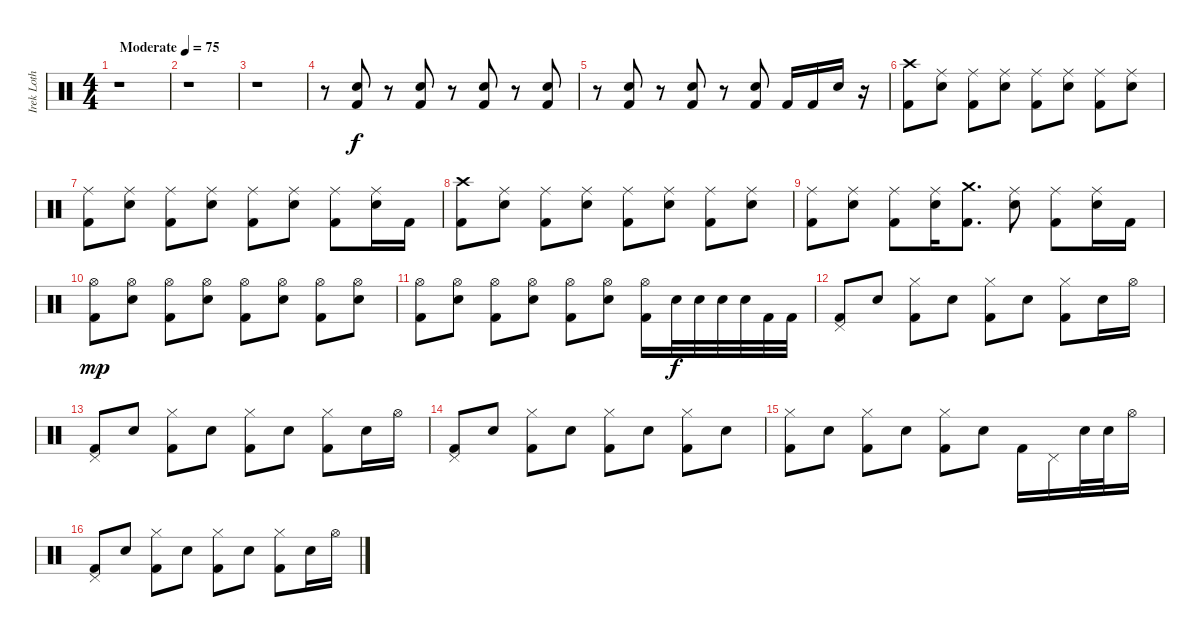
\track ("Irek Loth" "Irek Loth") {instrument percussion}
\staff {score}
\articulation defaults
\ts (4 4)
\tempo (75 "Moderate")
\clef neutral
\ks c
r.1{dy f} |
r.1 |
r.1 |
r.8 ("Snare (hit) 2" "Kick (hit) 2").8 r.8 ("Snare (hit) 2" "Kick (hit) 2").8 r.8 ("Snare (hit) 2" "Kick (hit) 2").8 r.8 ("Snare (hit) 2" "Kick (hit) 2").8 |
r.8 ("Snare (hit) 2" "Kick (hit) 2").8 r.8 ("Snare (hit) 2" "Kick (hit) 2").8 r.8 ("Snare (hit) 2" "Kick (hit) 2").8 "Kick (hit) 2".16 "Kick (hit) 2".16 "Snare (hit) 2".16 r.16 |
("Crash high (hit)" "Kick (hit) 2").8 ("Snare (hit) 2" "Ride (middle)").8 ("Ride (middle)" "Kick (hit) 2").8 ("Snare (hit) 2" "Ride (middle)").8 ("Ride (middle)" "Kick (hit) 2").8 ("Snare (hit) 2" "Ride (middle)").8 ("Ride (middle)" "Kick (hit) 2").8 ("Snare (hit) 2" "Ride (middle)").8 |
("Ride (middle)" "Kick (hit) 2").8 ("Snare (hit) 2" "Ride (middle)").8 ("Ride (middle)" "Kick (hit) 2").8 ("Snare (hit) 2" "Ride (middle)").8 ("Ride (middle)" "Kick (hit) 2").8 ("Snare (hit) 2" "Ride (middle)").8 ("Ride (middle)" "Kick (hit) 2").8 ("Snare (hit) 2" "Ride (middle)").16 "Kick (hit) 2".16 |
("Crash high (hit)" "Kick (hit) 2").8 ("Snare (hit) 2" "Ride (middle)").8 ("Ride (middle)" "Kick (hit) 2").8 ("Snare (hit) 2" "Ride (middle)").8 ("Ride (middle)" "Kick (hit) 2").8 ("Snare (hit) 2" "Ride (middle)").8 ("Ride (middle)" "Kick (hit) 2").8 ("Snare (hit) 2" "Ride (middle)").8 |
("Ride (middle)" "Kick (hit) 2").8 ("Snare (hit) 2" "Ride (middle)").8 ("Ride (middle)" "Kick (hit) 2").8 ("Snare (hit) 2" "Ride (middle)").16 ("Crash medium (hit)" "Kick (hit) 2").8{d} ("Snare (hit) 2" "Ride (middle)").8 ("Ride (middle)" "Kick (hit) 2").8 ("Snare (hit) 2" "Ride (middle)").16 "Kick (hit) 2".16 |
("Hi-Hat (open)" "Kick (hit) 2").8{dy mp} ("Snare (hit) 2" "Hi-Hat (open)").8 ("Hi-Hat (open)" "Kick (hit) 2").8 ("Snare (hit) 2" "Hi-Hat (open)").8 ("Hi-Hat (open)" "Kick (hit) 2").8 ("Snare (hit) 2" "Hi-Hat (open)").8 ("Hi-Hat (open)" "Kick (hit) 2").8 ("Snare (hit) 2" "Hi-Hat (open)").8 |
("Hi-Hat (open)" "Kick (hit) 2").8 ("Snare (hit) 2" "Hi-Hat (open)").8 ("Hi-Hat (open)" "Kick (hit) 2").8 ("Snare (hit) 2" "Hi-Hat (open)").8 ("Hi-Hat (open)" "Kick (hit) 2").8 ("Snare (hit) 2" "Hi-Hat (open)").8 ("Hi-Hat (open)" "Kick (hit) 2").16 "Snare (hit) 2".32{dy f} "Snare (hit) 2".32 "Snare (hit) 2".32 "Snare (hit) 2".32 "Kick (hit) 2".32 "Kick (hit) 2".32 |
("Pedal Hi-Hat (hit)" "Kick (hit) 2").8 "Snare (hit) 2".8 ("Hi-Hat (closed)" "Kick (hit) 2").8 "Snare (hit) 2".8 ("Hi-Hat (closed)" "Kick (hit) 2").8 "Snare (hit) 2".8 ("Hi-Hat (closed)" "Kick (hit) 2").8 "Snare (hit) 2".16 "Hi-Hat (open)".16 |
("Pedal Hi-Hat (hit)" "Kick (hit) 2").8 "Snare (hit) 2".8 ("Hi-Hat (closed)" "Kick (hit) 2").8 "Snare (hit) 2".8 ("Hi-Hat (closed)" "Kick (hit) 2").8 "Snare (hit) 2".8 ("Hi-Hat (closed)" "Kick (hit) 2").8 "Snare (hit) 2".16 "Hi-Hat (open)".16 |
("Pedal Hi-Hat (hit)" "Kick (hit) 2").8 "Snare (hit) 2".8 ("Hi-Hat (closed)" "Kick (hit) 2").8 "Snare (hit) 2".8 ("Hi-Hat (closed)" "Kick (hit) 2").8 "Snare (hit) 2".8 ("Hi-Hat (closed)" "Kick (hit) 2").8 "Snare (hit) 2".8 |
("Hi-Hat (closed)" "Kick (hit) 2").8 "Snare (hit) 2".8 ("Hi-Hat (closed)" "Kick (hit) 2").8 "Snare (hit) 2".8 ("Hi-Hat (closed)" "Kick (hit) 2").8 "Snare (hit) 2".8 "Kick (hit) 2".16 "Pedal Hi-Hat (hit)".16 "Snare (hit) 2".32 "Snare (hit) 2".32 "Hi-Hat (open)".16 |
("Pedal Hi-Hat (hit)" "Kick (hit) 2").8 "Snare (hit) 2".8 ("Hi-Hat (closed)" "Kick (hit) 2").8 "Snare (hit) 2".8 ("Hi-Hat (closed)" "Kick (hit) 2").8 "Snare (hit) 2".8 ("Hi-Hat (closed)" "Kick (hit) 2").8 "Snare (hit) 2".16 "Hi-Hat (open)".16
